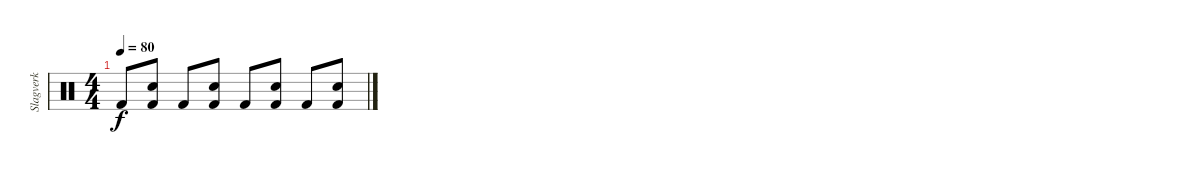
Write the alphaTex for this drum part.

\track ("Slagverk" "Slagverk") {instrument percussion}
\staff {score}
\articulation defaults
\ts (4 4)
\tempo 80
\clef neutral
\ks c "Kick (hit) 2".8{dy f}
("Electric Snare (hit)" "Kick (hit) 2").8 "Kick (hit) 2".8 ("Electric Snare (hit)" "Kick (hit) 2").8 "Kick (hit) 2".8 ("Electric Snare (hit)" "Kick (hit) 2").8 "Kick (hit) 2".8 ("Electric Snare (hit)" "Kick (hit) 2").8
